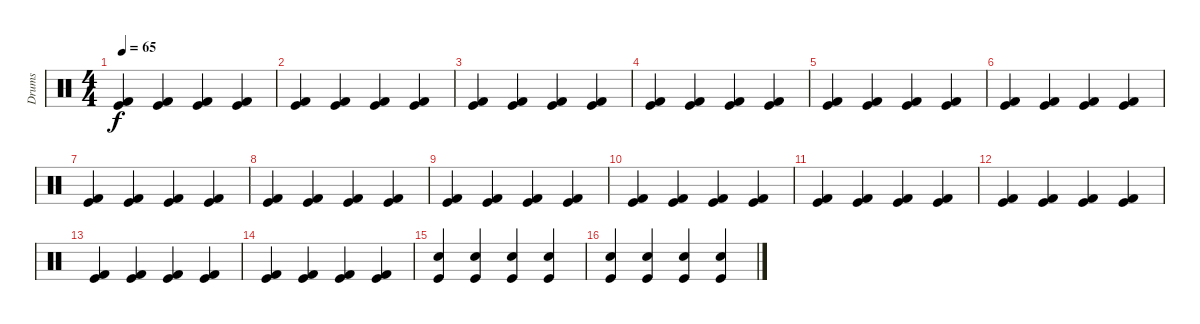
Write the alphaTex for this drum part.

\track ("Drums" "Drums") {instrument percussion}
\staff {score}
\articulation defaults
\ts (4 4)
\tempo 65
\clef neutral
\ks c
("Kick (hit)" "Kick (hit) 2").4{dy f} ("Kick (hit)" "Kick (hit) 2").4 ("Kick (hit)" "Kick (hit) 2").4 ("Kick (hit)" "Kick (hit) 2").4 |
("Kick (hit)" "Kick (hit) 2").4 ("Kick (hit)" "Kick (hit) 2").4 ("Kick (hit)" "Kick (hit) 2").4 ("Kick (hit)" "Kick (hit) 2").4 |
("Kick (hit)" "Kick (hit) 2").4 ("Kick (hit)" "Kick (hit) 2").4 ("Kick (hit)" "Kick (hit) 2").4 ("Kick (hit)" "Kick (hit) 2").4 |
("Kick (hit)" "Kick (hit) 2").4 ("Kick (hit)" "Kick (hit) 2").4 ("Kick (hit)" "Kick (hit) 2").4 ("Kick (hit)" "Kick (hit) 2").4 |
("Kick (hit)" "Kick (hit) 2").4 ("Kick (hit)" "Kick (hit) 2").4 ("Kick (hit)" "Kick (hit) 2").4 ("Kick (hit)" "Kick (hit) 2").4 |
("Kick (hit)" "Kick (hit) 2").4 ("Kick (hit)" "Kick (hit) 2").4 ("Kick (hit)" "Kick (hit) 2").4 ("Kick (hit)" "Kick (hit) 2").4 |
("Kick (hit)" "Kick (hit) 2").4 ("Kick (hit)" "Kick (hit) 2").4 ("Kick (hit)" "Kick (hit) 2").4 ("Kick (hit)" "Kick (hit) 2").4 |
("Kick (hit)" "Kick (hit) 2").4 ("Kick (hit)" "Kick (hit) 2").4 ("Kick (hit)" "Kick (hit) 2").4 ("Kick (hit)" "Kick (hit) 2").4 |
("Kick (hit)" "Kick (hit) 2").4 ("Kick (hit)" "Kick (hit) 2").4 ("Kick (hit)" "Kick (hit) 2").4 ("Kick (hit)" "Kick (hit) 2").4 |
("Kick (hit)" "Kick (hit) 2").4 ("Kick (hit)" "Kick (hit) 2").4 ("Kick (hit)" "Kick (hit) 2").4 ("Kick (hit)" "Kick (hit) 2").4 |
("Kick (hit)" "Kick (hit) 2").4 ("Kick (hit)" "Kick (hit) 2").4 ("Kick (hit)" "Kick (hit) 2").4 ("Kick (hit)" "Kick (hit) 2").4 |
("Kick (hit)" "Kick (hit) 2").4 ("Kick (hit)" "Kick (hit) 2").4 ("Kick (hit)" "Kick (hit) 2").4 ("Kick (hit)" "Kick (hit) 2").4 |
("Kick (hit)" "Kick (hit) 2").4 ("Kick (hit)" "Kick (hit) 2").4 ("Kick (hit)" "Kick (hit) 2").4 ("Kick (hit)" "Kick (hit) 2").4 |
("Kick (hit)" "Kick (hit) 2").4 ("Kick (hit)" "Kick (hit) 2").4 ("Kick (hit)" "Kick (hit) 2").4 ("Kick (hit)" "Kick (hit) 2").4 |
("Kick (hit)" "Snare (hit) 2").4 ("Kick (hit)" "Snare (hit) 2").4 ("Kick (hit)" "Snare (hit) 2").4 ("Kick (hit)" "Snare (hit) 2").4 |
("Kick (hit)" "Snare (hit) 2").4 ("Kick (hit)" "Snare (hit) 2").4 ("Kick (hit)" "Snare (hit) 2").4 ("Kick (hit)" "Snare (hit) 2").4
